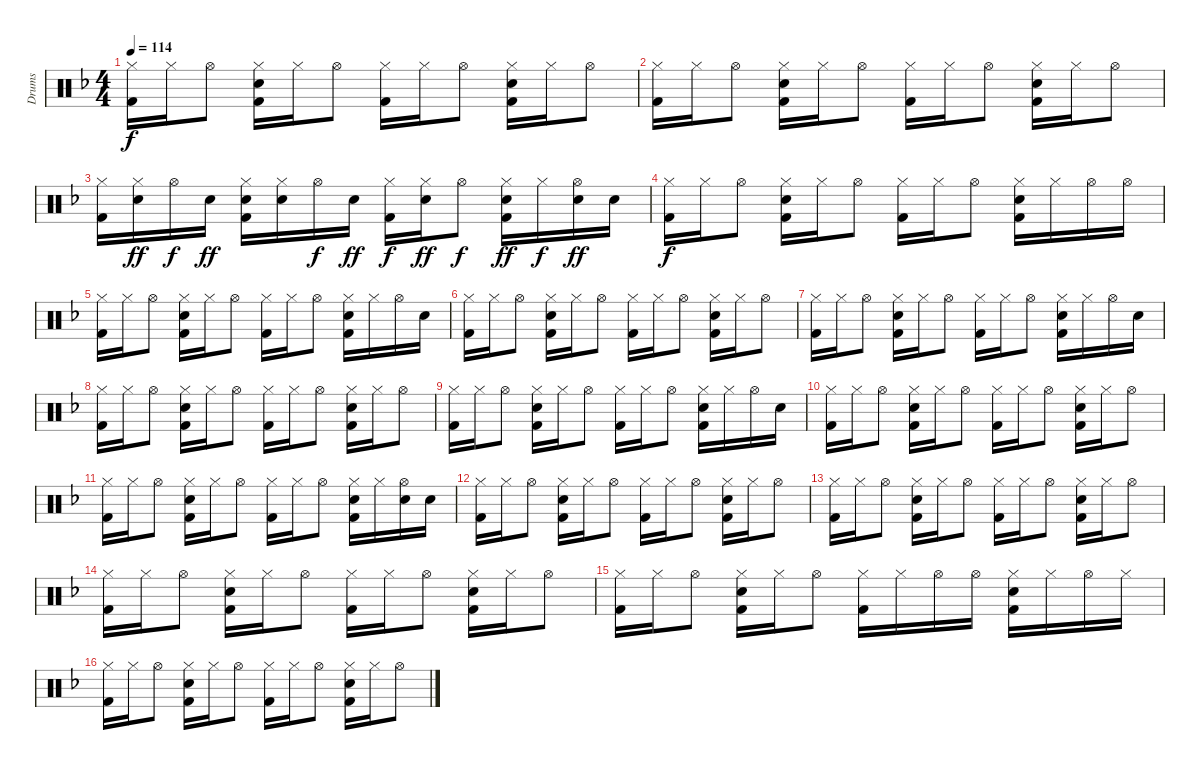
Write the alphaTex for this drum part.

\track ("Drums" "Drums") {instrument percussion}
\staff {score}
\articulation defaults
\ts (4 4)
\tempo 114
\clef neutral
\ks f
("Hi-Hat (closed)" "Kick (hit) 2").16{dy f} "Hi-Hat (closed)".16 "Hi-Hat (open)".8 ("Hi-Hat (closed)" "Electric Snare (hit)" "Kick (hit) 2").16 "Hi-Hat (closed)".16 "Hi-Hat (open)".8 ("Hi-Hat (closed)" "Kick (hit) 2").16 "Hi-Hat (closed)".16 "Hi-Hat (open)".8 ("Hi-Hat (closed)" "Electric Snare (hit)" "Kick (hit) 2").16 "Hi-Hat (closed)".16 "Hi-Hat (open)".8 |
("Hi-Hat (closed)" "Kick (hit) 2").16 "Hi-Hat (closed)".16 "Hi-Hat (open)".8 ("Hi-Hat (closed)" "Electric Snare (hit)" "Kick (hit) 2").16 "Hi-Hat (closed)".16 "Hi-Hat (open)".8 ("Hi-Hat (closed)" "Kick (hit) 2").16 "Hi-Hat (closed)".16 "Hi-Hat (open)".8 ("Hi-Hat (closed)" "Electric Snare (hit)" "Kick (hit) 2").16 "Hi-Hat (closed)".16 "Hi-Hat (open)".8 |
("Hi-Hat (closed)" "Kick (hit) 2").16 ("Hi-Hat (closed)" "Electric Snare (hit)").16{dy ff} "Hi-Hat (open)".16{dy f} "Electric Snare (hit)".16{dy ff} ("Hi-Hat (closed)" "Electric Snare (hit)" "Kick (hit) 2").16 ("Hi-Hat (closed)" "Electric Snare (hit)").16 "Hi-Hat (open)".16{dy f} "Electric Snare (hit)".16{dy ff} ("Hi-Hat (closed)" "Kick (hit) 2").16{dy f} ("Hi-Hat (closed)" "Electric Snare (hit)").16{dy ff} "Hi-Hat (open)".8{dy f} ("Hi-Hat (closed)" "Electric Snare (hit)" "Kick (hit) 2").16{dy ff} "Hi-Hat (closed)".16{dy f} ("Hi-Hat (open)" "Electric Snare (hit)").16{dy ff} "Electric Snare (hit)".16 |
("Hi-Hat (closed)" "Kick (hit) 2").16{dy f} "Hi-Hat (closed)".16 "Hi-Hat (open)".8 ("Hi-Hat (closed)" "Electric Snare (hit)" "Kick (hit) 2").16 "Hi-Hat (closed)".16 "Hi-Hat (open)".8 ("Hi-Hat (closed)" "Kick (hit) 2").16 "Hi-Hat (closed)".16 "Hi-Hat (open)".8 ("Hi-Hat (closed)" "Electric Snare (hit)" "Kick (hit) 2").16 "Hi-Hat (closed)".16 "Hi-Hat (open)".16 "Hi-Hat (open)".16 |
("Hi-Hat (closed)" "Kick (hit) 2").16 "Hi-Hat (closed)".16 "Hi-Hat (open)".8 ("Hi-Hat (closed)" "Electric Snare (hit)" "Kick (hit) 2").16 "Hi-Hat (closed)".16 "Hi-Hat (open)".8 ("Hi-Hat (closed)" "Kick (hit) 2").16 "Hi-Hat (closed)".16 "Hi-Hat (open)".8 ("Hi-Hat (closed)" "Electric Snare (hit)" "Kick (hit) 2").16 "Hi-Hat (closed)".16 "Hi-Hat (open)".16 "Electric Snare (hit)".16 |
("Hi-Hat (closed)" "Kick (hit) 2").16 "Hi-Hat (closed)".16 "Hi-Hat (open)".8 ("Hi-Hat (closed)" "Electric Snare (hit)" "Kick (hit) 2").16 "Hi-Hat (closed)".16 "Hi-Hat (open)".8 ("Hi-Hat (closed)" "Kick (hit) 2").16 "Hi-Hat (closed)".16 "Hi-Hat (open)".8 ("Hi-Hat (closed)" "Electric Snare (hit)" "Kick (hit) 2").16 "Hi-Hat (closed)".16 "Hi-Hat (open)".8 |
("Hi-Hat (closed)" "Kick (hit) 2").16 "Hi-Hat (closed)".16 "Hi-Hat (open)".8 ("Hi-Hat (closed)" "Electric Snare (hit)" "Kick (hit) 2").16 "Hi-Hat (closed)".16 "Hi-Hat (open)".8 ("Hi-Hat (closed)" "Kick (hit) 2").16 "Hi-Hat (closed)".16 "Hi-Hat (open)".8 ("Hi-Hat (closed)" "Electric Snare (hit)" "Kick (hit) 2").16 "Hi-Hat (closed)".16 "Hi-Hat (open)".16 "Electric Snare (hit)".16 |
("Hi-Hat (closed)" "Kick (hit) 2").16 "Hi-Hat (closed)".16 "Hi-Hat (open)".8 ("Hi-Hat (closed)" "Electric Snare (hit)" "Kick (hit) 2").16 "Hi-Hat (closed)".16 "Hi-Hat (open)".8 ("Hi-Hat (closed)" "Kick (hit) 2").16 "Hi-Hat (closed)".16 "Hi-Hat (open)".8 ("Hi-Hat (closed)" "Electric Snare (hit)" "Kick (hit) 2").16 "Hi-Hat (closed)".16 "Hi-Hat (open)".8 |
("Hi-Hat (closed)" "Kick (hit) 2").16 "Hi-Hat (closed)".16 "Hi-Hat (open)".8 ("Hi-Hat (closed)" "Electric Snare (hit)" "Kick (hit) 2").16 "Hi-Hat (closed)".16 "Hi-Hat (open)".8 ("Hi-Hat (closed)" "Kick (hit) 2").16 "Hi-Hat (closed)".16 "Hi-Hat (open)".8 ("Hi-Hat (closed)" "Electric Snare (hit)" "Kick (hit) 2").16 "Hi-Hat (closed)".16 "Hi-Hat (open)".16 "Electric Snare (hit)".16 |
("Hi-Hat (closed)" "Kick (hit) 2").16 "Hi-Hat (closed)".16 "Hi-Hat (open)".8 ("Hi-Hat (closed)" "Electric Snare (hit)" "Kick (hit) 2").16 "Hi-Hat (closed)".16 "Hi-Hat (open)".8 ("Hi-Hat (closed)" "Kick (hit) 2").16 "Hi-Hat (closed)".16 "Hi-Hat (open)".8 ("Hi-Hat (closed)" "Electric Snare (hit)" "Kick (hit) 2").16 "Hi-Hat (closed)".16 "Hi-Hat (open)".8 |
("Hi-Hat (closed)" "Kick (hit) 2").16 "Hi-Hat (closed)".16 "Hi-Hat (open)".8 ("Hi-Hat (closed)" "Electric Snare (hit)" "Kick (hit) 2").16 "Hi-Hat (closed)".16 "Hi-Hat (open)".8 ("Hi-Hat (closed)" "Kick (hit) 2").16 "Hi-Hat (closed)".16 "Hi-Hat (open)".8 ("Hi-Hat (closed)" "Electric Snare (hit)" "Kick (hit) 2").16 "Hi-Hat (closed)".16 ("Hi-Hat (open)" "Electric Snare (hit)").16 "Electric Snare (hit)".16 |
("Hi-Hat (closed)" "Kick (hit) 2").16 "Hi-Hat (closed)".16 "Hi-Hat (open)".8 ("Hi-Hat (closed)" "Electric Snare (hit)" "Kick (hit) 2").16 "Hi-Hat (closed)".16 "Hi-Hat (open)".8 ("Hi-Hat (closed)" "Kick (hit) 2").16 "Hi-Hat (closed)".16 "Hi-Hat (open)".8 ("Hi-Hat (closed)" "Electric Snare (hit)" "Kick (hit) 2").16 "Hi-Hat (closed)".16 "Hi-Hat (open)".8 |
("Hi-Hat (closed)" "Kick (hit) 2").16 "Hi-Hat (closed)".16 "Hi-Hat (open)".8 ("Hi-Hat (closed)" "Electric Snare (hit)" "Kick (hit) 2").16 "Hi-Hat (closed)".16 "Hi-Hat (open)".8 ("Hi-Hat (closed)" "Kick (hit) 2").16 "Hi-Hat (closed)".16 "Hi-Hat (open)".8 ("Hi-Hat (closed)" "Electric Snare (hit)" "Kick (hit) 2").16 "Hi-Hat (closed)".16 "Hi-Hat (open)".8 |
("Hi-Hat (closed)" "Kick (hit) 2").16 "Hi-Hat (closed)".16 "Hi-Hat (open)".8 ("Hi-Hat (closed)" "Electric Snare (hit)" "Kick (hit) 2").16 "Hi-Hat (closed)".16 "Hi-Hat (open)".8 ("Hi-Hat (closed)" "Kick (hit) 2").16 "Hi-Hat (closed)".16 "Hi-Hat (open)".8 ("Hi-Hat (closed)" "Electric Snare (hit)" "Kick (hit) 2").16 "Hi-Hat (closed)".16 "Hi-Hat (open)".8 |
("Hi-Hat (closed)" "Kick (hit) 2").16 "Hi-Hat (closed)".16 "Hi-Hat (open)".8 ("Hi-Hat (closed)" "Electric Snare (hit)" "Kick (hit) 2").16 "Hi-Hat (closed)".16 "Hi-Hat (open)".8 ("Hi-Hat (closed)" "Kick (hit) 2").16 "Hi-Hat (closed)".16 "Hi-Hat (open)".16 "Hi-Hat (open)".16 ("Hi-Hat (closed)" "Electric Snare (hit)" "Kick (hit) 2").16 "Hi-Hat (closed)".16 "Hi-Hat (open)".16 "Hi-Hat (closed)".16 |
("Hi-Hat (closed)" "Kick (hit) 2").16 "Hi-Hat (closed)".16 "Hi-Hat (open)".8 ("Hi-Hat (closed)" "Electric Snare (hit)" "Kick (hit) 2").16 "Hi-Hat (closed)".16 "Hi-Hat (open)".8 ("Hi-Hat (closed)" "Kick (hit) 2").16 "Hi-Hat (closed)".16 "Hi-Hat (open)".8 ("Hi-Hat (closed)" "Electric Snare (hit)" "Kick (hit) 2").16 "Hi-Hat (closed)".16 "Hi-Hat (open)".8
